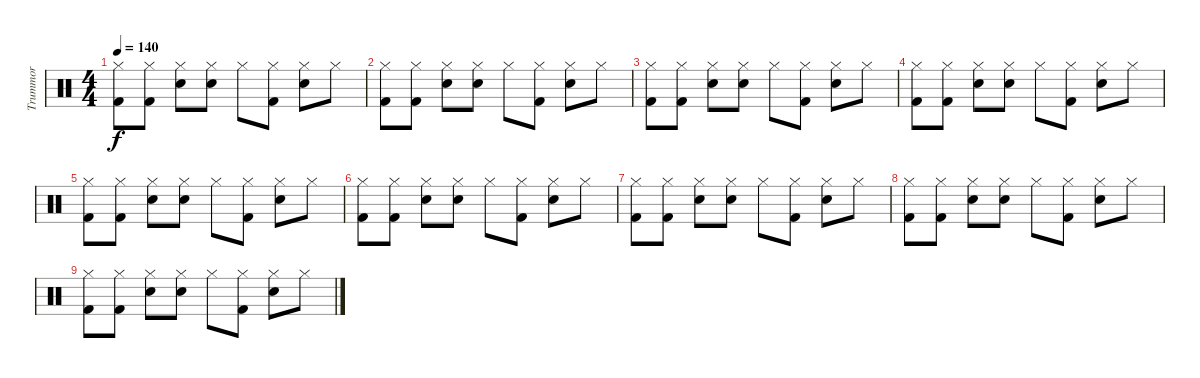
\track ("Trummor" "Trummor") {instrument percussion}
\staff {score}
\articulation defaults
\ts (4 4)
\tempo 140
\clef neutral
\ks c
("Hi-Hat (closed)" "Kick (hit) 2").8{dy f} ("Hi-Hat (closed)" "Kick (hit) 2").8 ("Hi-Hat (closed)" "Electric Snare (hit)").8 ("Hi-Hat (closed)" "Electric Snare (hit)").8 "Hi-Hat (closed)".8 ("Hi-Hat (closed)" "Kick (hit) 2").8 ("Hi-Hat (closed)" "Electric Snare (hit)").8 "Hi-Hat (closed)".8 |
("Hi-Hat (closed)" "Kick (hit) 2").8 ("Hi-Hat (closed)" "Kick (hit) 2").8 ("Hi-Hat (closed)" "Electric Snare (hit)").8 ("Hi-Hat (closed)" "Electric Snare (hit)").8 "Hi-Hat (closed)".8 ("Hi-Hat (closed)" "Kick (hit) 2").8 ("Hi-Hat (closed)" "Electric Snare (hit)").8 "Hi-Hat (closed)".8 |
("Hi-Hat (closed)" "Kick (hit) 2").8 ("Hi-Hat (closed)" "Kick (hit) 2").8 ("Hi-Hat (closed)" "Electric Snare (hit)").8 ("Hi-Hat (closed)" "Electric Snare (hit)").8 "Hi-Hat (closed)".8 ("Hi-Hat (closed)" "Kick (hit) 2").8 ("Hi-Hat (closed)" "Electric Snare (hit)").8 "Hi-Hat (closed)".8 |
("Hi-Hat (closed)" "Kick (hit) 2").8 ("Hi-Hat (closed)" "Kick (hit) 2").8 ("Hi-Hat (closed)" "Electric Snare (hit)").8 ("Hi-Hat (closed)" "Electric Snare (hit)").8 "Hi-Hat (closed)".8 ("Hi-Hat (closed)" "Kick (hit) 2").8 ("Hi-Hat (closed)" "Electric Snare (hit)").8 "Hi-Hat (closed)".8 |
("Hi-Hat (closed)" "Kick (hit) 2").8 ("Hi-Hat (closed)" "Kick (hit) 2").8 ("Hi-Hat (closed)" "Electric Snare (hit)").8 ("Hi-Hat (closed)" "Electric Snare (hit)").8 "Hi-Hat (closed)".8 ("Hi-Hat (closed)" "Kick (hit) 2").8 ("Hi-Hat (closed)" "Electric Snare (hit)").8 "Hi-Hat (closed)".8 |
("Hi-Hat (closed)" "Kick (hit) 2").8 ("Hi-Hat (closed)" "Kick (hit) 2").8 ("Hi-Hat (closed)" "Electric Snare (hit)").8 ("Hi-Hat (closed)" "Electric Snare (hit)").8 "Hi-Hat (closed)".8 ("Hi-Hat (closed)" "Kick (hit) 2").8 ("Hi-Hat (closed)" "Electric Snare (hit)").8 "Hi-Hat (closed)".8 |
("Hi-Hat (closed)" "Kick (hit) 2").8 ("Hi-Hat (closed)" "Kick (hit) 2").8 ("Hi-Hat (closed)" "Electric Snare (hit)").8 ("Hi-Hat (closed)" "Electric Snare (hit)").8 "Hi-Hat (closed)".8 ("Hi-Hat (closed)" "Kick (hit) 2").8 ("Hi-Hat (closed)" "Electric Snare (hit)").8 "Hi-Hat (closed)".8 |
("Hi-Hat (closed)" "Kick (hit) 2").8 ("Hi-Hat (closed)" "Kick (hit) 2").8 ("Hi-Hat (closed)" "Electric Snare (hit)").8 ("Hi-Hat (closed)" "Electric Snare (hit)").8 "Hi-Hat (closed)".8 ("Hi-Hat (closed)" "Kick (hit) 2").8 ("Hi-Hat (closed)" "Electric Snare (hit)").8 "Hi-Hat (closed)".8 |
("Hi-Hat (closed)" "Kick (hit) 2").8 ("Hi-Hat (closed)" "Kick (hit) 2").8 ("Hi-Hat (closed)" "Electric Snare (hit)").8 ("Hi-Hat (closed)" "Electric Snare (hit)").8 "Hi-Hat (closed)".8 ("Hi-Hat (closed)" "Kick (hit) 2").8 ("Hi-Hat (closed)" "Electric Snare (hit)").8 "Hi-Hat (closed)".8
